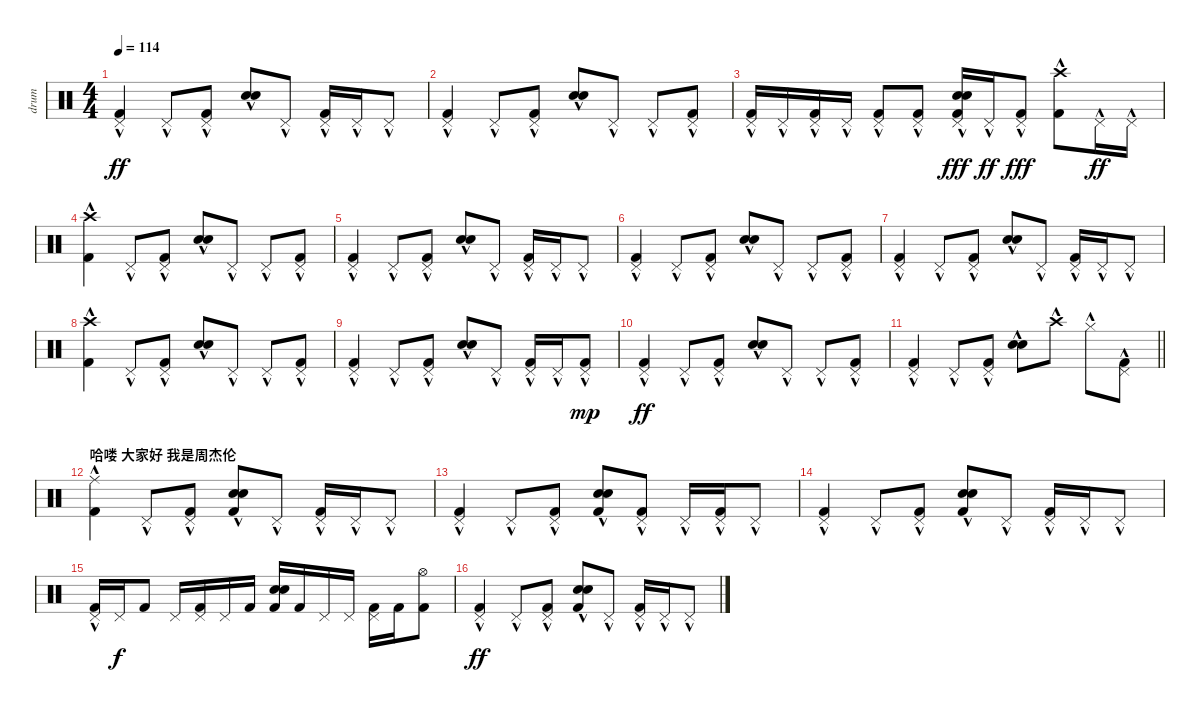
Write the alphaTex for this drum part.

\track ("drum" "drum") {instrument percussion}
\staff {score}
\articulation defaults
\ts (4 4)
\tempo 114
\clef neutral
\ks c
("Pedal Hi-Hat (hit)"{hac} "Kick (hit) 2"{hac}).4{dy ff} "Pedal Hi-Hat (hit)"{hac}.8 ("Pedal Hi-Hat (hit)"{hac} "Kick (hit) 2"{hac}).8 ("Snare (hit) 2"{hac} "Hand Clap (hit)"{hac}).8 "Pedal Hi-Hat (hit)"{hac}.8 ("Pedal Hi-Hat (hit)"{hac} "Kick (hit) 2"{hac}).16 "Pedal Hi-Hat (hit)"{hac}.16 "Pedal Hi-Hat (hit)"{hac}.8 |
("Pedal Hi-Hat (hit)"{hac} "Kick (hit) 2"{hac}).4 "Pedal Hi-Hat (hit)"{hac}.8 ("Pedal Hi-Hat (hit)"{hac} "Kick (hit) 2"{hac}).8 ("Snare (hit) 2"{hac} "Hand Clap (hit)"{hac}).8 "Pedal Hi-Hat (hit)"{hac}.8 "Pedal Hi-Hat (hit)"{hac}.8 ("Pedal Hi-Hat (hit)"{hac} "Kick (hit) 2"{hac}).8 |
("Pedal Hi-Hat (hit)"{hac} "Kick (hit) 2"{hac}).16 "Pedal Hi-Hat (hit)"{hac}.16 ("Pedal Hi-Hat (hit)"{hac} "Kick (hit) 2"{hac}).16 "Pedal Hi-Hat (hit)"{hac}.16 ("Pedal Hi-Hat (hit)"{hac} "Kick (hit) 2"{hac}).8 ("Pedal Hi-Hat (hit)"{hac} "Kick (hit) 2"{hac}).8 ("Pedal Hi-Hat (hit)"{hac} "Snare (hit) 2"{hac} "Hand Clap (hit)"{hac} "Kick (hit) 2"{hac}).16{dy fff} "Pedal Hi-Hat (hit)"{hac}.16{dy ff} ("Pedal Hi-Hat (hit)"{hac} "Kick (hit) 2"{hac}).8{dy fff} ("Crash high (hit)"{hac} "Kick (hit) 2"{hac}).8 "Pedal Hi-Hat (hit)"{hac}.16{dy ff} "Pedal Hi-Hat (hit)"{hac}.16 |
("Crash high (hit)"{hac} "Kick (hit) 2"{hac}).4 "Pedal Hi-Hat (hit)"{hac}.8 ("Pedal Hi-Hat (hit)"{hac} "Kick (hit) 2"{hac}).8 ("Snare (hit) 2"{hac} "Hand Clap (hit)"{hac}).8 "Pedal Hi-Hat (hit)"{hac}.8 "Pedal Hi-Hat (hit)"{hac}.8 ("Pedal Hi-Hat (hit)"{hac} "Kick (hit) 2"{hac}).8 |
("Pedal Hi-Hat (hit)"{hac} "Kick (hit) 2"{hac}).4 "Pedal Hi-Hat (hit)"{hac}.8 ("Pedal Hi-Hat (hit)"{hac} "Kick (hit) 2"{hac}).8 ("Snare (hit) 2"{hac} "Hand Clap (hit)"{hac}).8 "Pedal Hi-Hat (hit)"{hac}.8 ("Pedal Hi-Hat (hit)"{hac} "Kick (hit) 2"{hac}).16 "Pedal Hi-Hat (hit)"{hac}.16 "Pedal Hi-Hat (hit)"{hac}.8 |
("Pedal Hi-Hat (hit)"{hac} "Kick (hit) 2"{hac}).4 "Pedal Hi-Hat (hit)"{hac}.8 ("Pedal Hi-Hat (hit)"{hac} "Kick (hit) 2"{hac}).8 ("Snare (hit) 2"{hac} "Hand Clap (hit)"{hac}).8 "Pedal Hi-Hat (hit)"{hac}.8 "Pedal Hi-Hat (hit)"{hac}.8 ("Pedal Hi-Hat (hit)"{hac} "Kick (hit) 2"{hac}).8 |
("Pedal Hi-Hat (hit)"{hac} "Kick (hit) 2"{hac}).4 "Pedal Hi-Hat (hit)"{hac}.8 ("Pedal Hi-Hat (hit)"{hac} "Kick (hit) 2"{hac}).8 ("Snare (hit) 2"{hac} "Hand Clap (hit)"{hac}).8 "Pedal Hi-Hat (hit)"{hac}.8 ("Pedal Hi-Hat (hit)"{hac} "Kick (hit) 2"{hac}).16 "Pedal Hi-Hat (hit)"{hac}.16 "Pedal Hi-Hat (hit)"{hac}.8 |
("Crash high (hit)"{hac} "Kick (hit) 2"{hac}).4 "Pedal Hi-Hat (hit)"{hac}.8 ("Pedal Hi-Hat (hit)"{hac} "Kick (hit) 2"{hac}).8 ("Snare (hit) 2"{hac} "Hand Clap (hit)"{hac}).8 "Pedal Hi-Hat (hit)"{hac}.8 "Pedal Hi-Hat (hit)"{hac}.8 ("Pedal Hi-Hat (hit)"{hac} "Kick (hit) 2"{hac}).8 |
("Pedal Hi-Hat (hit)"{hac} "Kick (hit) 2"{hac}).4 "Pedal Hi-Hat (hit)"{hac}.8 ("Pedal Hi-Hat (hit)"{hac} "Kick (hit) 2"{hac}).8 ("Snare (hit) 2"{hac} "Hand Clap (hit)"{hac}).8 "Pedal Hi-Hat (hit)"{hac}.8 ("Pedal Hi-Hat (hit)"{hac} "Kick (hit) 2"{hac}).16 "Pedal Hi-Hat (hit)"{hac}.16 ("Pedal Hi-Hat (hit)"{hac} "Kick (hit) 2").8{dy mp} |
("Pedal Hi-Hat (hit)"{hac} "Kick (hit) 2"{hac}).4{dy ff} "Pedal Hi-Hat (hit)"{hac}.8 ("Pedal Hi-Hat (hit)"{hac} "Kick (hit) 2"{hac}).8 ("Snare (hit) 2"{hac} "Hand Clap (hit)"{hac}).8 "Pedal Hi-Hat (hit)"{hac}.8 "Pedal Hi-Hat (hit)"{hac}.8 ("Pedal Hi-Hat (hit)"{hac} "Kick (hit) 2"{hac}).8 |
\barLineRight lightlight
("Pedal Hi-Hat (hit)"{hac} "Kick (hit) 2"{hac}).4 "Pedal Hi-Hat (hit)"{hac}.8 ("Pedal Hi-Hat (hit)"{hac} "Kick (hit) 2"{hac}).8 ("Snare (hit) 2"{hac} "Hand Clap (hit)"{hac}).8 "Crash high (hit)"{hac}.8 "Hi-Hat (closed)"{hac}.8 ("Pedal Hi-Hat (hit)"{hac} "Kick (hit) 2"{hac}).8 |
\section ("" "哈喽 大家好 我是周杰伦")
("Ride (middle)"{hac} "Kick (hit) 2"{hac}).4 "Pedal Hi-Hat (hit)"{hac}.8 ("Pedal Hi-Hat (hit)"{hac} "Kick (hit) 2"{hac}).8 ("Snare (hit) 2"{hac} "Hand Clap (hit)"{hac} "Kick (hit) 2").8 "Pedal Hi-Hat (hit)"{hac}.8 ("Pedal Hi-Hat (hit)"{hac} "Kick (hit) 2"{hac}).16 "Pedal Hi-Hat (hit)"{hac}.16 "Pedal Hi-Hat (hit)"{hac}.8 |
("Pedal Hi-Hat (hit)"{hac} "Kick (hit) 2"{hac}).4 "Pedal Hi-Hat (hit)"{hac}.8 ("Pedal Hi-Hat (hit)"{hac} "Kick (hit) 2"{hac}).8 ("Snare (hit) 2"{hac} "Hand Clap (hit)"{hac} "Kick (hit) 2").8 ("Pedal Hi-Hat (hit)"{hac} "Kick (hit) 2").8 "Pedal Hi-Hat (hit)"{hac}.16 ("Pedal Hi-Hat (hit)"{hac} "Kick (hit) 2").16 "Pedal Hi-Hat (hit)"{hac}.8 |
("Pedal Hi-Hat (hit)"{hac} "Kick (hit) 2"{hac}).4 "Pedal Hi-Hat (hit)"{hac}.8 ("Pedal Hi-Hat (hit)"{hac} "Kick (hit) 2"{hac}).8 ("Snare (hit) 2"{hac} "Hand Clap (hit)"{hac} "Kick (hit) 2").8 "Pedal Hi-Hat (hit)"{hac}.8 ("Pedal Hi-Hat (hit)"{hac} "Kick (hit) 2"{hac}).16 "Pedal Hi-Hat (hit)"{hac}.16 "Pedal Hi-Hat (hit)"{hac}.8 |
("Pedal Hi-Hat (hit)"{hac} "Kick (hit) 2"{hac}).16 "Pedal Hi-Hat (hit)".16{dy f} "Kick (hit) 2".8 "Pedal Hi-Hat (hit)".16 ("Pedal Hi-Hat (hit)" "Kick (hit) 2").16 "Pedal Hi-Hat (hit)".16 "Kick (hit) 2".16 ("Snare (hit) 2" "Hand Clap (hit)" "Kick (hit) 2").16 "Kick (hit) 2".16 "Pedal Hi-Hat (hit)".16 "Pedal Hi-Hat (hit)".16 ("Pedal Hi-Hat (hit)" "Kick (hit) 2").16 "Kick (hit) 2".16 ("Hi-Hat (open)" "Kick (hit) 2").8 |
("Pedal Hi-Hat (hit)"{hac} "Kick (hit) 2"{hac}).4{dy ff} "Pedal Hi-Hat (hit)"{hac}.8 ("Pedal Hi-Hat (hit)"{hac} "Kick (hit) 2"{hac}).8 ("Snare (hit) 2"{hac} "Hand Clap (hit)"{hac} "Kick (hit) 2").8 "Pedal Hi-Hat (hit)"{hac}.8 ("Pedal Hi-Hat (hit)"{hac} "Kick (hit) 2"{hac}).16 "Pedal Hi-Hat (hit)"{hac}.16 "Pedal Hi-Hat (hit)"{hac}.8
